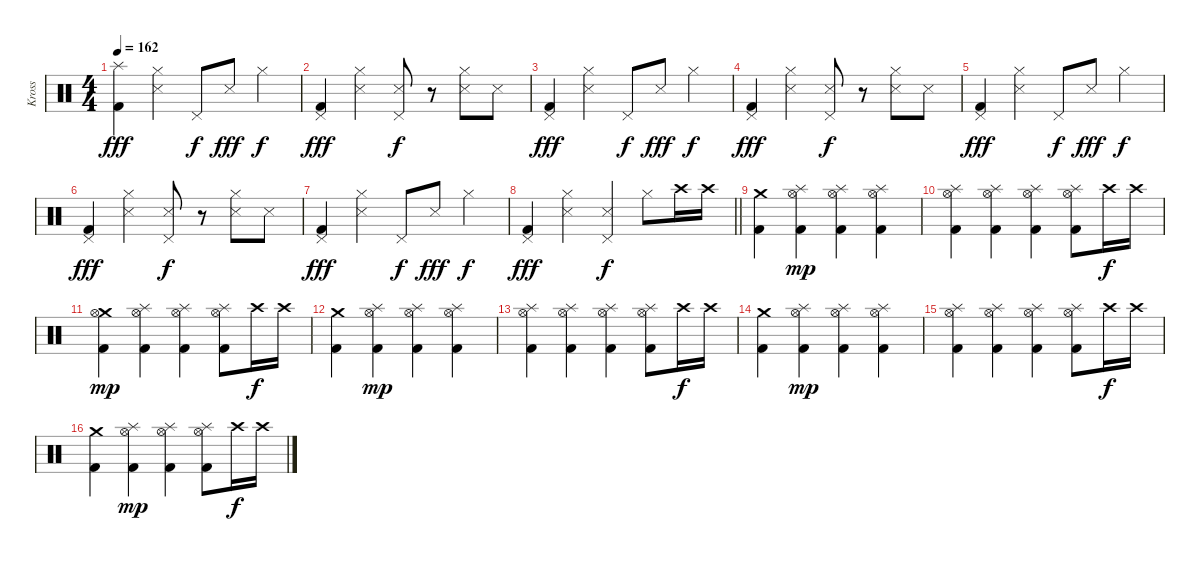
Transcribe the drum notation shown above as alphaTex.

\track ("Kross" "Kross") {instrument percussion}
\staff {score}
\articulation defaults
\ts (4 4)
\tempo 162
\clef neutral
\ks c
("Splash (hit)" "Kick (hit) 2").4{dy fff} ("Hi-Hat (closed)" "Snare (side stick) 3").4 "Pedal Hi-Hat (hit)".8{dy f} "Snare (side stick) 3".8{dy fff} "Hi-Hat (closed)".4{dy f} |
("Pedal Hi-Hat (hit)" "Kick (hit) 2").4{dy fff} ("Hi-Hat (closed)" "Snare (side stick) 3").4 ("Pedal Hi-Hat (hit)" "Snare (side stick) 3").8{dy f} r.8 ("Hi-Hat (closed)" "Snare (side stick) 3").8 "Snare (side stick) 3".8 |
("Pedal Hi-Hat (hit)" "Kick (hit) 2").4{dy fff} ("Hi-Hat (closed)" "Snare (side stick) 3").4 "Pedal Hi-Hat (hit)".8{dy f} "Snare (side stick) 3".8{dy fff} "Hi-Hat (closed)".4{dy f} |
("Pedal Hi-Hat (hit)" "Kick (hit) 2").4{dy fff} ("Hi-Hat (closed)" "Snare (side stick) 3").4 ("Pedal Hi-Hat (hit)" "Snare (side stick) 3").8{dy f} r.8 ("Hi-Hat (closed)" "Snare (side stick) 3").8 "Snare (side stick) 3".8 |
("Pedal Hi-Hat (hit)" "Kick (hit) 2").4{dy fff} ("Hi-Hat (closed)" "Snare (side stick) 3").4 "Pedal Hi-Hat (hit)".8{dy f} "Snare (side stick) 3".8{dy fff} "Hi-Hat (closed)".4{dy f} |
("Pedal Hi-Hat (hit)" "Kick (hit) 2").4{dy fff} ("Hi-Hat (closed)" "Snare (side stick) 3").4 ("Pedal Hi-Hat (hit)" "Snare (side stick) 3").8{dy f} r.8 ("Hi-Hat (closed)" "Snare (side stick) 3").8 "Snare (side stick) 3".8 |
("Pedal Hi-Hat (hit)" "Kick (hit) 2").4{dy fff} ("Hi-Hat (closed)" "Snare (side stick) 3").4 "Pedal Hi-Hat (hit)".8{dy f} "Snare (side stick) 3".8{dy fff} "Hi-Hat (closed)".4{dy f} |
\barLineRight lightlight
("Pedal Hi-Hat (hit)" "Kick (hit) 2").4{dy fff} ("Hi-Hat (closed)" "Snare (side stick) 3").4 ("Pedal Hi-Hat (hit)" "Snare (side stick) 3").4{dy f} "Hi-Hat (closed)".8 "Crash high (hit)".16 "Crash high (hit)".16 |
("Crash medium (hit)" "Kick (hit) 2").4 ("Splash (hit)" "Hi-Hat (open)" "Kick (hit) 2").4{dy mp} ("Splash (hit)" "Hi-Hat (open)" "Kick (hit) 2").4 ("Splash (hit)" "Hi-Hat (open)" "Kick (hit) 2").4 |
("Splash (hit)" "Hi-Hat (open)" "Kick (hit) 2").4 ("Splash (hit)" "Hi-Hat (open)" "Kick (hit) 2").4 ("Splash (hit)" "Hi-Hat (open)" "Kick (hit) 2").4 ("Splash (hit)" "Hi-Hat (open)" "Kick (hit) 2").8 "Crash high (hit)".16{dy f} "Crash high (hit)".16 |
("Crash medium (hit)" "Hi-Hat (open)" "Kick (hit) 2").4{dy mp} ("Splash (hit)" "Hi-Hat (open)" "Kick (hit) 2").4 ("Splash (hit)" "Hi-Hat (open)" "Kick (hit) 2").4 ("Splash (hit)" "Hi-Hat (open)" "Kick (hit) 2").8 "Crash high (hit)".16{dy f} "Crash high (hit)".16 |
("Crash medium (hit)" "Kick (hit) 2").4 ("Splash (hit)" "Hi-Hat (open)" "Kick (hit) 2").4{dy mp} ("Splash (hit)" "Hi-Hat (open)" "Kick (hit) 2").4 ("Splash (hit)" "Hi-Hat (open)" "Kick (hit) 2").4 |
("Splash (hit)" "Hi-Hat (open)" "Kick (hit) 2").4 ("Splash (hit)" "Hi-Hat (open)" "Kick (hit) 2").4 ("Splash (hit)" "Hi-Hat (open)" "Kick (hit) 2").4 ("Splash (hit)" "Hi-Hat (open)" "Kick (hit) 2").8 "Crash high (hit)".16{dy f} "Crash high (hit)".16 |
("Crash medium (hit)" "Kick (hit) 2").4 ("Splash (hit)" "Hi-Hat (open)" "Kick (hit) 2").4{dy mp} ("Splash (hit)" "Hi-Hat (open)" "Kick (hit) 2").4 ("Splash (hit)" "Hi-Hat (open)" "Kick (hit) 2").4 |
("Splash (hit)" "Hi-Hat (open)" "Kick (hit) 2").4 ("Splash (hit)" "Hi-Hat (open)" "Kick (hit) 2").4 ("Splash (hit)" "Hi-Hat (open)" "Kick (hit) 2").4 ("Splash (hit)" "Hi-Hat (open)" "Kick (hit) 2").8 "Crash high (hit)".16{dy f} "Crash high (hit)".16 |
("Crash medium (hit)" "Kick (hit) 2").4 ("Splash (hit)" "Hi-Hat (open)" "Kick (hit) 2").4{dy mp} ("Splash (hit)" "Hi-Hat (open)" "Kick (hit) 2").4 ("Splash (hit)" "Hi-Hat (open)" "Kick (hit) 2").8 "Crash high (hit)".16{dy f} "Crash high (hit)".16
